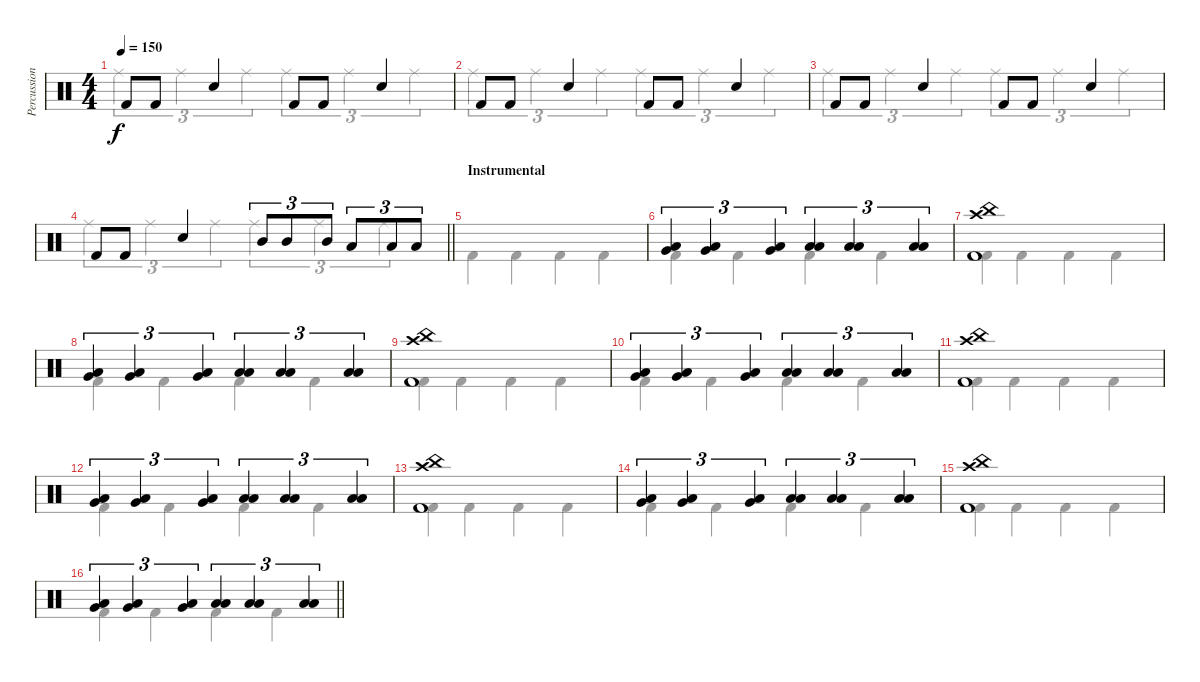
\track ("Percussion" "Percussion") {instrument percussion}
\staff {score}
\articulation defaults
\voice
\ts (4 4)
\tempo 150
\clef neutral
\ks c "Kick (hit) 2".8{dy f} "Kick (hit) 2".8 "Snare (hit) 2".4 "Kick (hit) 2".8 "Kick (hit) 2".8 "Snare (hit) 2".4
|
"Kick (hit) 2".8 "Kick (hit) 2".8 "Snare (hit) 2".4 "Kick (hit) 2".8 "Kick (hit) 2".8 "Snare (hit) 2".4 |
"Kick (hit) 2".8 "Kick (hit) 2".8 "Snare (hit) 2".4 "Kick (hit) 2".8 "Kick (hit) 2".8 "Snare (hit) 2".4 |
\barLineRight lightlight "Kick (hit) 2".8 "Kick (hit) 2".8 "Snare (hit) 2".4 "Mid Tom (hit)".8{tu (3 2)} "Mid Tom (hit)".8{tu (3 2)} "Mid Tom (hit)".8{tu (3 2)} "Low Tom (hit)".8{tu (3 2)} "Low Tom (hit)".8{tu (3 2)} "Low Tom (hit)".8{tu (3 2)}
|
\section ("" "Instrumental")
|
("Very Low Tom (hit)" "Low Floor Tom (hit)").4{tu (3 2)} ("Very Low Tom (hit)" "Low Floor Tom (hit)").4{tu (3 2)} ("Very Low Tom (hit)" "Low Floor Tom (hit)").4{tu (3 2)} ("Low Floor Tom (hit)" "Low Tom (hit)").4{tu (3 2)} ("Low Floor Tom (hit)" "Low Tom (hit)").4{tu (3 2)} ("Low Floor Tom (hit)" "Low Tom (hit)").4{tu (3 2)} |
("China (hit)" "Kick (hit) 2" "Crash high (hit)").1 |
("Very Low Tom (hit)" "Low Floor Tom (hit)").4{tu (3 2)} ("Very Low Tom (hit)" "Low Floor Tom (hit)").4{tu (3 2)} ("Very Low Tom (hit)" "Low Floor Tom (hit)").4{tu (3 2)} ("Low Floor Tom (hit)" "Low Tom (hit)").4{tu (3 2)} ("Low Floor Tom (hit)" "Low Tom (hit)").4{tu (3 2)} ("Low Floor Tom (hit)" "Low Tom (hit)").4{tu (3 2)} |
("China (hit)" "Kick (hit) 2" "Crash high (hit)").1 |
("Very Low Tom (hit)" "Low Floor Tom (hit)").4{tu (3 2)} ("Very Low Tom (hit)" "Low Floor Tom (hit)").4{tu (3 2)} ("Very Low Tom (hit)" "Low Floor Tom (hit)").4{tu (3 2)} ("Low Floor Tom (hit)" "Low Tom (hit)").4{tu (3 2)} ("Low Floor Tom (hit)" "Low Tom (hit)").4{tu (3 2)} ("Low Floor Tom (hit)" "Low Tom (hit)").4{tu (3 2)} |
("China (hit)" "Kick (hit) 2" "Crash high (hit)").1 |
("Very Low Tom (hit)" "Low Floor Tom (hit)").4{tu (3 2)} ("Very Low Tom (hit)" "Low Floor Tom (hit)").4{tu (3 2)} ("Very Low Tom (hit)" "Low Floor Tom (hit)").4{tu (3 2)} ("Low Floor Tom (hit)" "Low Tom (hit)").4{tu (3 2)} ("Low Floor Tom (hit)" "Low Tom (hit)").4{tu (3 2)} ("Low Floor Tom (hit)" "Low Tom (hit)").4{tu (3 2)} |
("China (hit)" "Kick (hit) 2" "Crash high (hit)").1 |
("Very Low Tom (hit)" "Low Floor Tom (hit)").4{tu (3 2)} ("Very Low Tom (hit)" "Low Floor Tom (hit)").4{tu (3 2)} ("Very Low Tom (hit)" "Low Floor Tom (hit)").4{tu (3 2)} ("Low Floor Tom (hit)" "Low Tom (hit)").4{tu (3 2)} ("Low Floor Tom (hit)" "Low Tom (hit)").4{tu (3 2)} ("Low Floor Tom (hit)" "Low Tom (hit)").4{tu (3 2)} |
("China (hit)" "Kick (hit) 2" "Crash high (hit)").1 |
\barLineRight lightlight
("Very Low Tom (hit)" "Low Floor Tom (hit)").4{tu (3 2)} ("Very Low Tom (hit)" "Low Floor Tom (hit)").4{tu (3 2)} ("Very Low Tom (hit)" "Low Floor Tom (hit)").4{tu (3 2)} ("Low Floor Tom (hit)" "Low Tom (hit)").4{tu (3 2)} ("Low Floor Tom (hit)" "Low Tom (hit)").4{tu (3 2)} ("Low Floor Tom (hit)" "Low Tom (hit)").4{tu (3 2)}
\voice
\clef neutral
\ottava regular
\simile none
\ks c "Ride (middle)".4{tu (3 2) dy f} "Ride (middle)".4{tu (3 2)} "Ride (middle)".4{tu (3 2)} "Ride (middle)".4{tu (3 2)} "Ride (middle)".4{tu (3 2)} "Ride (middle)".4{tu (3 2)}
|
"Ride (middle)".4{tu (3 2)} "Ride (middle)".4{tu (3 2)} "Ride (middle)".4{tu (3 2)} "Ride (middle)".4{tu (3 2)} "Ride (middle)".4{tu (3 2)} "Ride (middle)".4{tu (3 2)} |
"Ride (middle)".4{tu (3 2)} "Ride (middle)".4{tu (3 2)} "Ride (middle)".4{tu (3 2)} "Ride (middle)".4{tu (3 2)} "Ride (middle)".4{tu (3 2)} "Ride (middle)".4{tu (3 2)} |
\barLineRight lightlight "Ride (middle)".4{tu (3 2)} "Ride (middle)".4{tu (3 2)} "Ride (middle)".4{tu (3 2)} "Ride (middle)".4{tu (3 2)} "Ride (middle)".4{tu (3 2)} "Ride (middle)".4{tu (3 2)}
|
"Kick (hit) 2".4 "Kick (hit) 2".4 "Kick (hit) 2".4 "Kick (hit) 2".4 |
"Kick (hit) 2".4 "Kick (hit) 2".4 "Kick (hit) 2".4 "Kick (hit) 2".4 |
"Kick (hit) 2".4 "Kick (hit) 2".4 "Kick (hit) 2".4 "Kick (hit) 2".4 |
"Kick (hit) 2".4 "Kick (hit) 2".4 "Kick (hit) 2".4 "Kick (hit) 2".4 |
"Kick (hit) 2".4 "Kick (hit) 2".4 "Kick (hit) 2".4 "Kick (hit) 2".4 |
"Kick (hit) 2".4 "Kick (hit) 2".4 "Kick (hit) 2".4 "Kick (hit) 2".4 |
"Kick (hit) 2".4 "Kick (hit) 2".4 "Kick (hit) 2".4 "Kick (hit) 2".4 |
"Kick (hit) 2".4 "Kick (hit) 2".4 "Kick (hit) 2".4 "Kick (hit) 2".4 |
"Kick (hit) 2".4 "Kick (hit) 2".4 "Kick (hit) 2".4 "Kick (hit) 2".4 |
"Kick (hit) 2".4 "Kick (hit) 2".4 "Kick (hit) 2".4 "Kick (hit) 2".4 |
"Kick (hit) 2".4 "Kick (hit) 2".4 "Kick (hit) 2".4 "Kick (hit) 2".4 |
\barLineRight lightlight "Kick (hit) 2".4 "Kick (hit) 2".4 "Kick (hit) 2".4 "Kick (hit) 2".4
